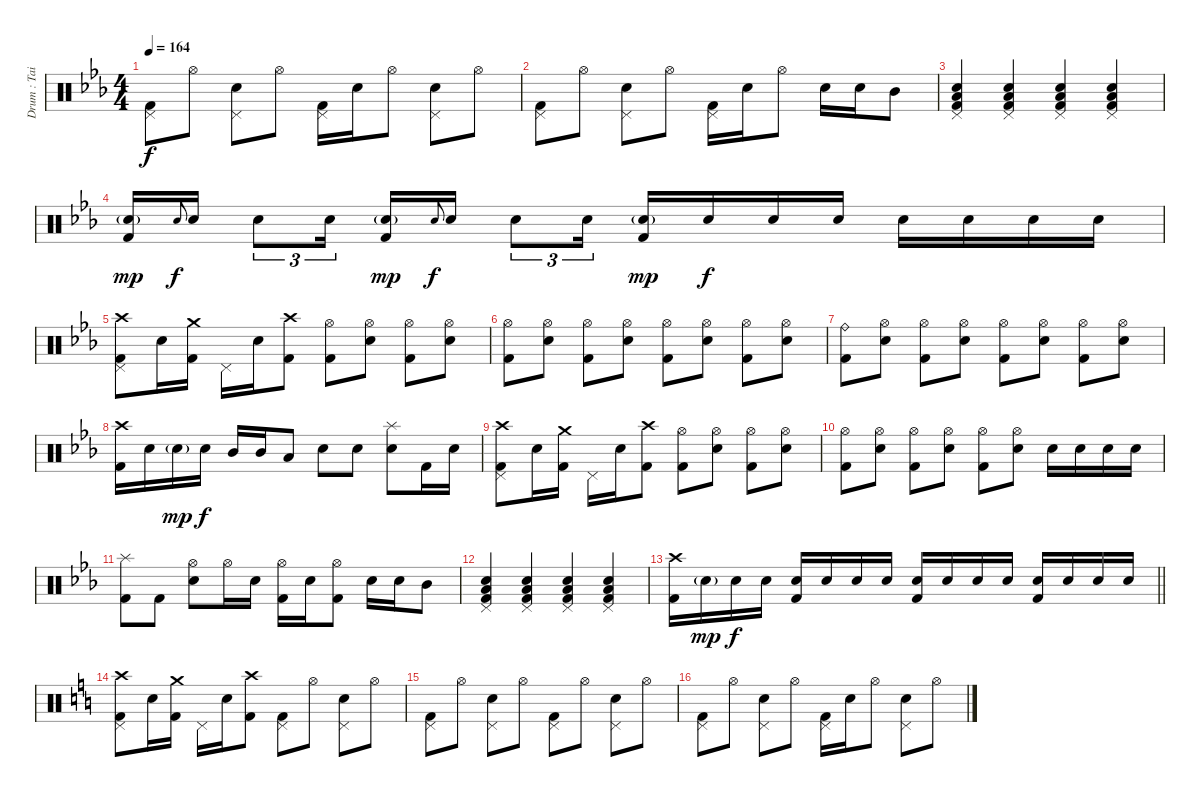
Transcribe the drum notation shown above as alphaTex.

\track ("Drum : Tainaka Ritsu - Chan" "Drum : Tai") {instrument percussion}
\staff {score}
\articulation defaults
\ts (4 4)
\tempo 164
\clef neutral
\ks eb
("Pedal Hi-Hat (hit)" "Kick (hit) 2").8{dy f} "Hi-Hat (open)".8 ("Pedal Hi-Hat (hit)" "Electric Snare (hit)").8 "Hi-Hat (open)".8 ("Pedal Hi-Hat (hit)" "Kick (hit) 2").16 "Electric Snare (hit)".16 "Hi-Hat (open)".8 ("Pedal Hi-Hat (hit)" "Electric Snare (hit)").8 "Hi-Hat (open)".8 |
("Pedal Hi-Hat (hit)" "Kick (hit) 2").8 "Hi-Hat (open)".8 ("Pedal Hi-Hat (hit)" "Electric Snare (hit)").8 "Hi-Hat (open)".8 ("Pedal Hi-Hat (hit)" "Kick (hit) 2").16 "Electric Snare (hit)".16 "Hi-Hat (open)".8 "Electric Snare (hit)".16 "Electric Snare (hit)".16 "Mid Tom (hit)".8 |
("Pedal Hi-Hat (hit)" "Electric Snare (hit)" "Low Floor Tom (hit)" "Kick (hit) 2").4 ("Pedal Hi-Hat (hit)" "Electric Snare (hit)" "Low Floor Tom (hit)" "Kick (hit) 2").4 ("Pedal Hi-Hat (hit)" "Electric Snare (hit)" "Low Floor Tom (hit)" "Kick (hit) 2").4 ("Pedal Hi-Hat (hit)" "Electric Snare (hit)" "Low Floor Tom (hit)" "Kick (hit) 2").4 |
("Electric Snare (hit)"{g} "Kick (hit) 2").16{dy mp} "Electric Snare (hit)".8{gr onbeat dy f} "Electric Snare (hit)".16 "Electric Snare (hit)".8{tu (3 2)} "Electric Snare (hit)".16{tu (3 2)} ("Electric Snare (hit)"{g} "Kick (hit) 2").16{dy mp} "Electric Snare (hit)".8{gr onbeat dy f} "Electric Snare (hit)".16 "Electric Snare (hit)".8{tu (3 2)} "Electric Snare (hit)".16{tu (3 2)} ("Electric Snare (hit)"{g} "Kick (hit) 2").16{dy mp} "Electric Snare (hit)".16{dy f} "Electric Snare (hit)".16 "Electric Snare (hit)".16 "Electric Snare (hit)".16 "Electric Snare (hit)".16 "Electric Snare (hit)".16 "Electric Snare (hit)".16 |
("Crash high (hit)" "Pedal Hi-Hat (hit)" "Kick (hit) 2").8 "Electric Snare (hit)".16 ("Crash medium (hit)" "Kick (hit) 2").16 "Pedal Hi-Hat (hit)".16 "Electric Snare (hit)".16 ("Crash high (hit)" "Kick (hit) 2").8 ("Hi-Hat (open)" "Kick (hit) 2").8 ("Hi-Hat (open)" "Electric Snare (hit)").8 ("Hi-Hat (open)" "Kick (hit) 2").8 ("Hi-Hat (open)" "Electric Snare (hit)").8 |
("Hi-Hat (open)" "Kick (hit) 2").8 ("Hi-Hat (open)" "Electric Snare (hit)").8 ("Hi-Hat (open)" "Kick (hit) 2").8 ("Hi-Hat (open)" "Electric Snare (hit)").8 ("Hi-Hat (open)" "Kick (hit) 2").8 ("Hi-Hat (open)" "Electric Snare (hit)").8 ("Hi-Hat (open)" "Kick (hit) 2").8 ("Hi-Hat (open)" "Electric Snare (hit)").8 |
("Ride (bell)" "Kick (hit) 2").8 ("Hi-Hat (open)" "Electric Snare (hit)").8 ("Hi-Hat (open)" "Kick (hit) 2").8 ("Hi-Hat (open)" "Electric Snare (hit)").8 ("Hi-Hat (open)" "Kick (hit) 2").8 ("Hi-Hat (open)" "Electric Snare (hit)").8 ("Hi-Hat (open)" "Kick (hit) 2").8 ("Hi-Hat (open)" "Electric Snare (hit)").8 |
("Crash high (hit)" "Kick (hit) 2").16 "Electric Snare (hit)".16 "Electric Snare (hit)"{g}.16{dy mp} "Electric Snare (hit)".16{dy f} "Mid Tom (hit)".16 "Mid Tom (hit)".16 "Low Tom (hit)".8 "Electric Snare (hit)".8 "Electric Snare (hit)".8 ("Splash (hit)" "Electric Snare (hit)").8 "Kick (hit) 2".16 "Electric Snare (hit)".16 |
("Crash high (hit)" "Pedal Hi-Hat (hit)" "Kick (hit) 2").8 "Electric Snare (hit)".16 ("Crash medium (hit)" "Kick (hit) 2").16 "Pedal Hi-Hat (hit)".16 "Electric Snare (hit)".16 ("Crash high (hit)" "Kick (hit) 2").8 ("Hi-Hat (open)" "Kick (hit) 2").8 ("Hi-Hat (open)" "Electric Snare (hit)").8 ("Hi-Hat (open)" "Kick (hit) 2").8 ("Hi-Hat (open)" "Electric Snare (hit)").8 |
("Hi-Hat (open)" "Kick (hit) 2").8 ("Hi-Hat (open)" "Electric Snare (hit)").8 ("Hi-Hat (open)" "Kick (hit) 2").8 ("Hi-Hat (open)" "Electric Snare (hit)").8 ("Hi-Hat (open)" "Kick (hit) 2").8 ("Hi-Hat (open)" "Electric Snare (hit)").8 "Electric Snare (hit)".16 "Electric Snare (hit)".16 "Electric Snare (hit)".16 "Electric Snare (hit)".16 |
("Splash (hit)" "Kick (hit) 2").8 "Kick (hit) 2".8 ("Hi-Hat (open)" "Electric Snare (hit)").8 "Hi-Hat (open)".16 "Electric Snare (hit)".16 ("Hi-Hat (open)" "Kick (hit) 2").16 "Electric Snare (hit)".16 ("Hi-Hat (open)" "Kick (hit) 2").8 "Electric Snare (hit)".16 "Electric Snare (hit)".16 "Mid Tom (hit)".8 |
("Pedal Hi-Hat (hit)" "Electric Snare (hit)" "Low Floor Tom (hit)" "Kick (hit) 2").4 ("Pedal Hi-Hat (hit)" "Electric Snare (hit)" "Low Floor Tom (hit)" "Kick (hit) 2").4 ("Pedal Hi-Hat (hit)" "Electric Snare (hit)" "Low Floor Tom (hit)" "Kick (hit) 2").4 ("Pedal Hi-Hat (hit)" "Electric Snare (hit)" "Low Floor Tom (hit)" "Kick (hit) 2").4 |
\barLineRight lightlight
("Crash high (hit)" "Kick (hit) 2").16 "Electric Snare (hit)"{g}.16{dy mp} "Electric Snare (hit)".16{dy f} "Electric Snare (hit)".16 ("Electric Snare (hit)" "Kick (hit) 2").16 "Electric Snare (hit)".16 "Electric Snare (hit)".16 "Electric Snare (hit)".16 ("Electric Snare (hit)" "Kick (hit) 2").16 "Electric Snare (hit)".16 "Electric Snare (hit)".16 "Electric Snare (hit)".16 ("Electric Snare (hit)" "Kick (hit) 2").16 "Electric Snare (hit)".16 "Electric Snare (hit)".16 "Electric Snare (hit)".16 |
\ks c
("Crash high (hit)" "Pedal Hi-Hat (hit)" "Kick (hit) 2").8 "Electric Snare (hit)".16 ("Crash medium (hit)" "Kick (hit) 2").16 "Pedal Hi-Hat (hit)".16 "Electric Snare (hit)".16 ("Crash high (hit)" "Kick (hit) 2").8 ("Pedal Hi-Hat (hit)" "Kick (hit) 2").8 "Hi-Hat (open)".8 ("Pedal Hi-Hat (hit)" "Electric Snare (hit)").8 "Hi-Hat (open)".8 |
("Pedal Hi-Hat (hit)" "Kick (hit) 2").8 "Hi-Hat (open)".8 ("Pedal Hi-Hat (hit)" "Electric Snare (hit)").8 "Hi-Hat (open)".8 ("Pedal Hi-Hat (hit)" "Kick (hit) 2").8 "Hi-Hat (open)".8 ("Pedal Hi-Hat (hit)" "Electric Snare (hit)").8 "Hi-Hat (open)".8 |
("Pedal Hi-Hat (hit)" "Kick (hit) 2").8 "Hi-Hat (open)".8 ("Pedal Hi-Hat (hit)" "Electric Snare (hit)").8 "Hi-Hat (open)".8 ("Pedal Hi-Hat (hit)" "Kick (hit) 2").16 "Electric Snare (hit)".16 "Hi-Hat (open)".8 ("Pedal Hi-Hat (hit)" "Electric Snare (hit)").8 "Hi-Hat (open)".8
